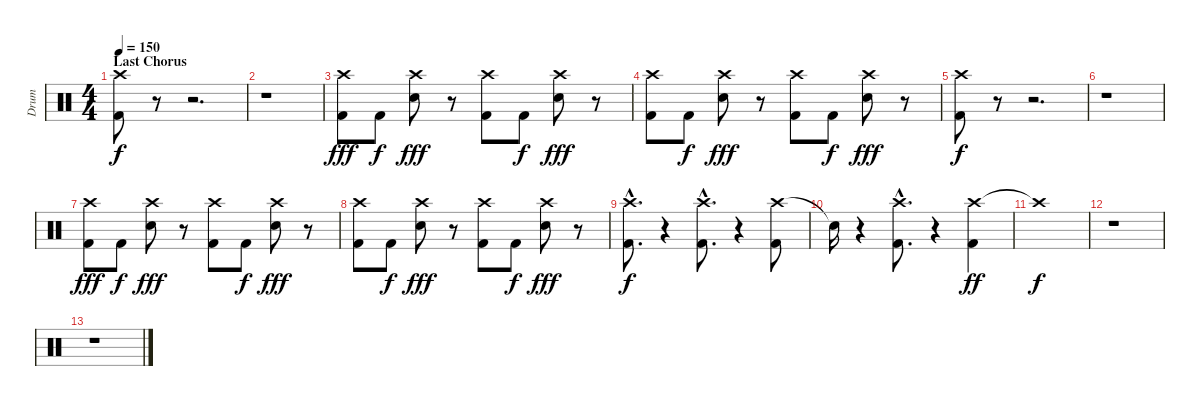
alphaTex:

\track ("Drum" "Drum") {instrument percussion}
\staff {score}
\articulation defaults
\ts (4 4)
\section ("" "Last Chorus")
\tempo 150
\clef neutral
\ks c
("Crash high (hit)" "Kick (hit) 2").8{dy f} r.8 r.2{d} |
r.1 |
("Crash high (hit)" "Kick (hit) 2").8{dy fff} "Kick (hit) 2".8{dy f} ("Crash high (hit)" "Electric Snare (hit)").8{dy fff} r.8 ("Crash high (hit)" "Kick (hit) 2").8 "Kick (hit) 2".8{dy f} ("Crash high (hit)" "Electric Snare (hit)").8{dy fff} r.8 |
("Crash high (hit)" "Kick (hit) 2").8 "Kick (hit) 2".8{dy f} ("Crash high (hit)" "Electric Snare (hit)").8{dy fff} r.8 ("Crash high (hit)" "Kick (hit) 2").8 "Kick (hit) 2".8{dy f} ("Crash high (hit)" "Electric Snare (hit)").8{dy fff} r.8 |
("Crash high (hit)" "Kick (hit) 2").8{dy f} r.8 r.2{d} |
r.1 |
("Crash high (hit)" "Kick (hit) 2").8{dy fff} "Kick (hit) 2".8{dy f} ("Crash high (hit)" "Electric Snare (hit)").8{dy fff} r.8 ("Crash high (hit)" "Kick (hit) 2").8 "Kick (hit) 2".8{dy f} ("Crash high (hit)" "Electric Snare (hit)").8{dy fff} r.8 |
("Crash high (hit)" "Kick (hit) 2").8 "Kick (hit) 2".8{dy f} ("Crash high (hit)" "Electric Snare (hit)").8{dy fff} r.8 ("Crash high (hit)" "Kick (hit) 2").8 "Kick (hit) 2".8{dy f} ("Crash high (hit)" "Electric Snare (hit)").8{dy fff} r.8 |
("Crash high (hit)"{hac} "Kick (hit) 2"{hac}).8{d dy f} r.4 ("Crash high (hit)"{hac} "Kick (hit) 2"{hac}).8{d} r.4 ("Crash high (hit)" "Kick (hit) 2").8 |
"Snare (hit)"{t}.16 r.4 ("Crash high (hit)"{hac} "Kick (hit) 2"{hac}).8{d} r.4 ("Crash high (hit)" "Kick (hit) 2").4{dy ff} |
"Crash high (hit)"{t}.1{dy f} |
r.1 |
r.1
